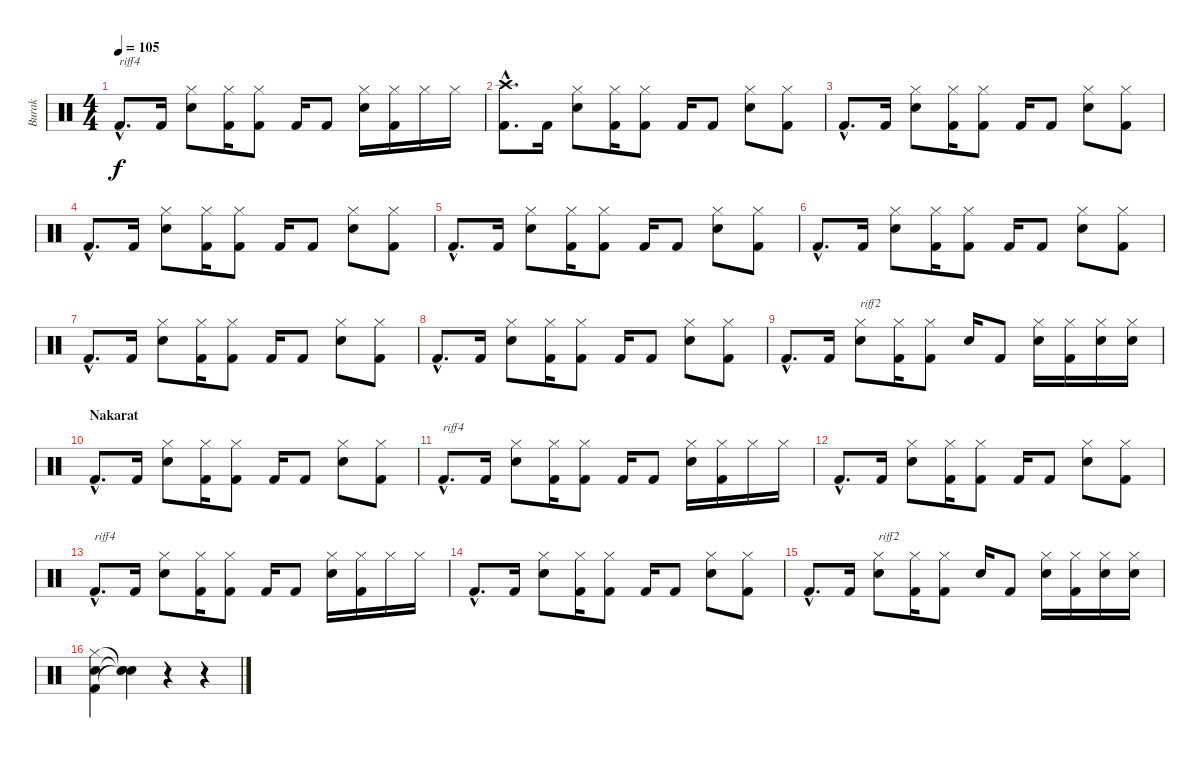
\track ("Burak" "Burak") {instrument percussion}
\staff {score}
\articulation defaults
\ts (4 4)
\tempo 105
\clef neutral
\ks c "Kick (hit) 2"{hac}.8{d txt "riff4" dy f} "Kick (hit) 2".16
("Electric Snare (hit)" "Hi-Hat (closed)").8 ("Kick (hit) 2" "Hi-Hat (closed)").16 ("Kick (hit) 2" "Hi-Hat (closed)").8 "Kick (hit) 2".16 "Kick (hit) 2".8 ("Electric Snare (hit)" "Hi-Hat (closed)").16 ("Kick (hit) 2" "Hi-Hat (closed)").16 "Hi-Hat (closed)".16 "Hi-Hat (closed)".16 |
("Kick (hit) 2"{hac} "Crash high (hit)"{hac}).8{d} "Kick (hit) 2".16 ("Electric Snare (hit)" "Hi-Hat (closed)").8 ("Kick (hit) 2" "Hi-Hat (closed)").16 ("Kick (hit) 2" "Hi-Hat (closed)").8 "Kick (hit) 2".16 "Kick (hit) 2".8 ("Electric Snare (hit)" "Hi-Hat (closed)").8 ("Kick (hit) 2" "Hi-Hat (closed)").8 |
"Kick (hit) 2"{hac}.8{d} "Kick (hit) 2".16 ("Electric Snare (hit)" "Hi-Hat (closed)").8 ("Kick (hit) 2" "Hi-Hat (closed)").16 ("Kick (hit) 2" "Hi-Hat (closed)").8 "Kick (hit) 2".16 "Kick (hit) 2".8 ("Electric Snare (hit)" "Hi-Hat (closed)").8 ("Kick (hit) 2" "Hi-Hat (closed)").8 |
"Kick (hit) 2"{hac}.8{d} "Kick (hit) 2".16 ("Electric Snare (hit)" "Hi-Hat (closed)").8 ("Kick (hit) 2" "Hi-Hat (closed)").16 ("Kick (hit) 2" "Hi-Hat (closed)").8 "Kick (hit) 2".16 "Kick (hit) 2".8 ("Electric Snare (hit)" "Hi-Hat (closed)").8 ("Kick (hit) 2" "Hi-Hat (closed)").8 |
"Kick (hit) 2"{hac}.8{d} "Kick (hit) 2".16 ("Electric Snare (hit)" "Hi-Hat (closed)").8 ("Kick (hit) 2" "Hi-Hat (closed)").16 ("Kick (hit) 2" "Hi-Hat (closed)").8 "Kick (hit) 2".16 "Kick (hit) 2".8 ("Electric Snare (hit)" "Hi-Hat (closed)").8 ("Kick (hit) 2" "Hi-Hat (closed)").8 |
"Kick (hit) 2"{hac}.8{d} "Kick (hit) 2".16 ("Electric Snare (hit)" "Hi-Hat (closed)").8 ("Kick (hit) 2" "Hi-Hat (closed)").16 ("Kick (hit) 2" "Hi-Hat (closed)").8 "Kick (hit) 2".16 "Kick (hit) 2".8 ("Electric Snare (hit)" "Hi-Hat (closed)").8 ("Kick (hit) 2" "Hi-Hat (closed)").8 |
"Kick (hit) 2"{hac}.8{d} "Kick (hit) 2".16 ("Electric Snare (hit)" "Hi-Hat (closed)").8 ("Kick (hit) 2" "Hi-Hat (closed)").16 ("Kick (hit) 2" "Hi-Hat (closed)").8 "Kick (hit) 2".16 "Kick (hit) 2".8 ("Electric Snare (hit)" "Hi-Hat (closed)").8 ("Kick (hit) 2" "Hi-Hat (closed)").8 |
"Kick (hit) 2"{hac}.8{d} "Kick (hit) 2".16 ("Electric Snare (hit)" "Hi-Hat (closed)").8 ("Kick (hit) 2" "Hi-Hat (closed)").16 ("Kick (hit) 2" "Hi-Hat (closed)").8 "Kick (hit) 2".16 "Kick (hit) 2".8 ("Electric Snare (hit)" "Hi-Hat (closed)").8 ("Kick (hit) 2" "Hi-Hat (closed)").8 |
"Kick (hit) 2"{hac}.8{d} "Kick (hit) 2".16 ("Electric Snare (hit)" "Hi-Hat (closed)").8{txt "riff2"} ("Kick (hit) 2" "Hi-Hat (closed)").16 ("Kick (hit) 2" "Hi-Hat (closed)").8 "Electric Snare (hit)".16 "Kick (hit) 2".8 ("Electric Snare (hit)" "Hi-Hat (closed)").16 ("Kick (hit) 2" "Hi-Hat (closed)").16 ("Electric Snare (hit)" "Hi-Hat (closed)").16 ("Electric Snare (hit)" "Hi-Hat (closed)").16 |
\section ("" "Nakarat")
"Kick (hit) 2"{hac}.8{d} "Kick (hit) 2".16 ("Electric Snare (hit)" "Hi-Hat (closed)").8 ("Kick (hit) 2" "Hi-Hat (closed)").16 ("Kick (hit) 2" "Hi-Hat (closed)").8 "Kick (hit) 2".16 "Kick (hit) 2".8 ("Electric Snare (hit)" "Hi-Hat (closed)").8 ("Kick (hit) 2" "Hi-Hat (closed)").8 |
"Kick (hit) 2"{hac}.8{d txt "riff4"} "Kick (hit) 2".16 ("Electric Snare (hit)" "Hi-Hat (closed)").8 ("Kick (hit) 2" "Hi-Hat (closed)").16 ("Kick (hit) 2" "Hi-Hat (closed)").8 "Kick (hit) 2".16 "Kick (hit) 2".8 ("Electric Snare (hit)" "Hi-Hat (closed)").16 ("Kick (hit) 2" "Hi-Hat (closed)").16 "Hi-Hat (closed)".16 "Hi-Hat (closed)".16 |
"Kick (hit) 2"{hac}.8{d} "Kick (hit) 2".16 ("Electric Snare (hit)" "Hi-Hat (closed)").8 ("Kick (hit) 2" "Hi-Hat (closed)").16 ("Kick (hit) 2" "Hi-Hat (closed)").8 "Kick (hit) 2".16 "Kick (hit) 2".8 ("Electric Snare (hit)" "Hi-Hat (closed)").8 ("Kick (hit) 2" "Hi-Hat (closed)").8 |
"Kick (hit) 2"{hac}.8{d txt "riff4"} "Kick (hit) 2".16 ("Electric Snare (hit)" "Hi-Hat (closed)").8 ("Kick (hit) 2" "Hi-Hat (closed)").16 ("Kick (hit) 2" "Hi-Hat (closed)").8 "Kick (hit) 2".16 "Kick (hit) 2".8 ("Electric Snare (hit)" "Hi-Hat (closed)").16 ("Kick (hit) 2" "Hi-Hat (closed)").16 "Hi-Hat (closed)".16 "Hi-Hat (closed)".16 |
"Kick (hit) 2"{hac}.8{d} "Kick (hit) 2".16 ("Electric Snare (hit)" "Hi-Hat (closed)").8 ("Kick (hit) 2" "Hi-Hat (closed)").16 ("Kick (hit) 2" "Hi-Hat (closed)").8 "Kick (hit) 2".16 "Kick (hit) 2".8 ("Electric Snare (hit)" "Hi-Hat (closed)").8 ("Kick (hit) 2" "Hi-Hat (closed)").8 |
"Kick (hit) 2"{hac}.8{d} "Kick (hit) 2".16 ("Electric Snare (hit)" "Hi-Hat (closed)").8{txt "riff2"} ("Kick (hit) 2" "Hi-Hat (closed)").16 ("Kick (hit) 2" "Hi-Hat (closed)").8 "Electric Snare (hit)".16 "Kick (hit) 2".8 ("Electric Snare (hit)" "Hi-Hat (closed)").16 ("Kick (hit) 2" "Hi-Hat (closed)").16 ("Electric Snare (hit)" "Hi-Hat (closed)").16 ("Electric Snare (hit)" "Hi-Hat (closed)").16 |
("Electric Snare (hit)" "Hi-Hat (closed)" "Kick (hit) 2").4 ("Snare (hit)"{t} "Snare (hit)"{t} "Snare (hit)"{t}).4 r.4 r.4
